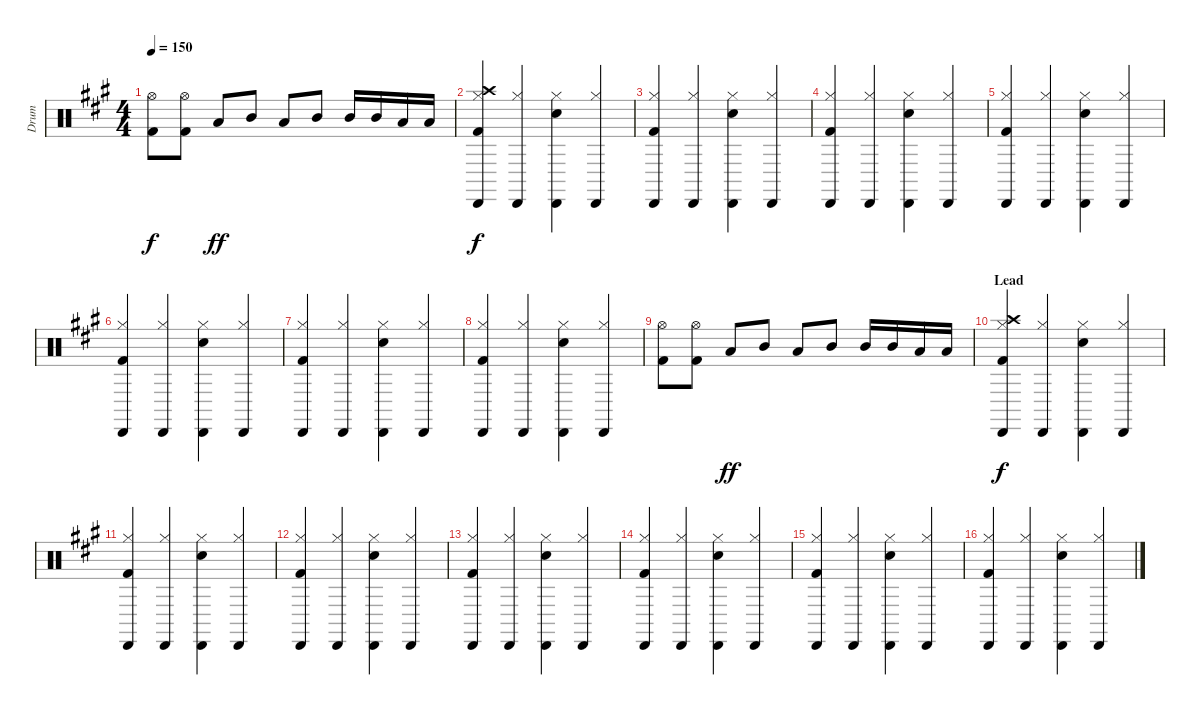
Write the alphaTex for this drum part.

\track ("Drum " "Drum ") {instrument percussion}
\staff {score}
\articulation defaults
\ts (4 4)
\tempo 150
\clef neutral
\ks a
("Hi-Hat (open)" "Kick (hit) 2").8{dy f} ("Hi-Hat (open)" "Kick (hit) 2").8 "Low Tom (hit)".8{dy ff} "Mid Tom (hit)".8 "Low Tom (hit)".8 "Mid Tom (hit)".8 "Mid Tom (hit)".16 "Mid Tom (hit)".16 "Low Tom (hit)".16 "Low Tom (hit)".16 |
\section ("" "")
("Hi-Hat (closed)" "Crash high (hit)" "Cabasa (hit)" "Kick (hit) 2").4{dy f} ("Hi-Hat (closed)" "Cabasa (hit)").4 ("Hi-Hat (closed)" "Snare (hit) 2" "Cabasa (hit)").4 ("Hi-Hat (closed)" "Cabasa (hit)").4 |
("Hi-Hat (closed)" "Cabasa (hit)" "Kick (hit) 2").4 ("Hi-Hat (closed)" "Cabasa (hit)").4 ("Hi-Hat (closed)" "Snare (hit) 2" "Cabasa (hit)").4 ("Hi-Hat (closed)" "Cabasa (hit)").4 |
("Hi-Hat (closed)" "Cabasa (hit)" "Kick (hit) 2").4 ("Hi-Hat (closed)" "Cabasa (hit)").4 ("Hi-Hat (closed)" "Snare (hit) 2" "Cabasa (hit)").4 ("Hi-Hat (closed)" "Cabasa (hit)").4 |
("Hi-Hat (closed)" "Cabasa (hit)" "Kick (hit) 2").4 ("Hi-Hat (closed)" "Cabasa (hit)").4 ("Hi-Hat (closed)" "Snare (hit) 2" "Cabasa (hit)").4 ("Hi-Hat (closed)" "Cabasa (hit)").4 |
("Hi-Hat (closed)" "Cabasa (hit)" "Kick (hit) 2").4 ("Hi-Hat (closed)" "Cabasa (hit)").4 ("Hi-Hat (closed)" "Snare (hit) 2" "Cabasa (hit)").4 ("Hi-Hat (closed)" "Cabasa (hit)").4 |
("Hi-Hat (closed)" "Cabasa (hit)" "Kick (hit) 2").4 ("Hi-Hat (closed)" "Cabasa (hit)").4 ("Hi-Hat (closed)" "Snare (hit) 2" "Cabasa (hit)").4 ("Hi-Hat (closed)" "Cabasa (hit)").4 |
("Hi-Hat (closed)" "Cabasa (hit)" "Kick (hit) 2").4 ("Hi-Hat (closed)" "Cabasa (hit)").4 ("Hi-Hat (closed)" "Snare (hit) 2" "Cabasa (hit)").4 ("Hi-Hat (closed)" "Cabasa (hit)").4 |
("Hi-Hat (open)" "Kick (hit) 2").8 ("Hi-Hat (open)" "Kick (hit) 2").8 "Low Tom (hit)".8{dy ff} "Mid Tom (hit)".8 "Low Tom (hit)".8 "Mid Tom (hit)".8 "Mid Tom (hit)".16 "Mid Tom (hit)".16 "Low Tom (hit)".16 "Low Tom (hit)".16 |
\section ("" "Lead")
("Hi-Hat (closed)" "Crash high (hit)" "Cabasa (hit)" "Kick (hit) 2").4{dy f} ("Hi-Hat (closed)" "Cabasa (hit)").4 ("Hi-Hat (closed)" "Snare (hit) 2" "Cabasa (hit)").4 ("Hi-Hat (closed)" "Cabasa (hit)").4 |
("Hi-Hat (closed)" "Cabasa (hit)" "Kick (hit) 2").4 ("Hi-Hat (closed)" "Cabasa (hit)").4 ("Hi-Hat (closed)" "Snare (hit) 2" "Cabasa (hit)").4 ("Hi-Hat (closed)" "Cabasa (hit)").4 |
("Hi-Hat (closed)" "Cabasa (hit)" "Kick (hit) 2").4 ("Hi-Hat (closed)" "Cabasa (hit)").4 ("Hi-Hat (closed)" "Snare (hit) 2" "Cabasa (hit)").4 ("Hi-Hat (closed)" "Cabasa (hit)").4 |
("Hi-Hat (closed)" "Cabasa (hit)" "Kick (hit) 2").4 ("Hi-Hat (closed)" "Cabasa (hit)").4 ("Hi-Hat (closed)" "Snare (hit) 2" "Cabasa (hit)").4 ("Hi-Hat (closed)" "Cabasa (hit)").4 |
("Hi-Hat (closed)" "Cabasa (hit)" "Kick (hit) 2").4 ("Hi-Hat (closed)" "Cabasa (hit)").4 ("Hi-Hat (closed)" "Snare (hit) 2" "Cabasa (hit)").4 ("Hi-Hat (closed)" "Cabasa (hit)").4 |
("Hi-Hat (closed)" "Cabasa (hit)" "Kick (hit) 2").4 ("Hi-Hat (closed)" "Cabasa (hit)").4 ("Hi-Hat (closed)" "Snare (hit) 2" "Cabasa (hit)").4 ("Hi-Hat (closed)" "Cabasa (hit)").4 |
("Hi-Hat (closed)" "Cabasa (hit)" "Kick (hit) 2").4 ("Hi-Hat (closed)" "Cabasa (hit)").4 ("Hi-Hat (closed)" "Snare (hit) 2" "Cabasa (hit)").4 ("Hi-Hat (closed)" "Cabasa (hit)").4
